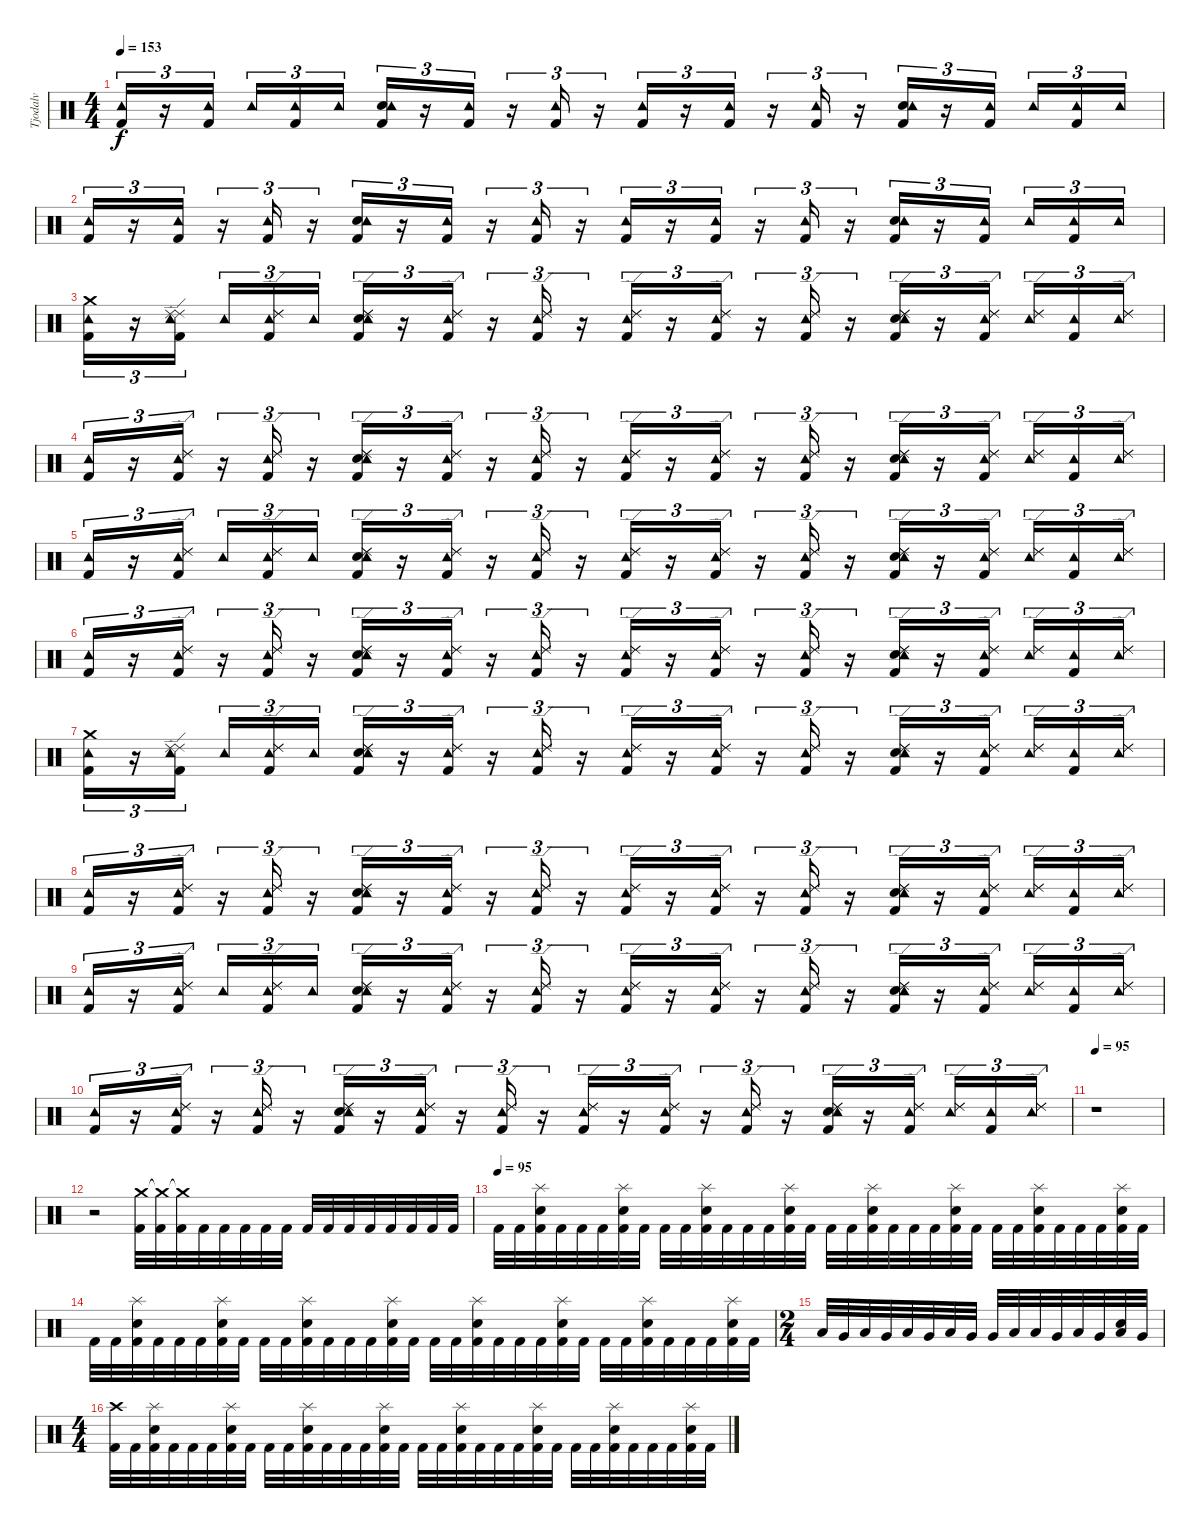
\track ("Tjodalv" "Tjodalv") {instrument percussion}
\staff {score}
\articulation defaults
\ts (4 4)
\tempo 153
\clef neutral
\ks c
("Kick (hit) 2" "Tambourine (hit)").16{tu (3 2) dy f} r.16{tu (3 2)} ("Kick (hit) 2" "Tambourine (hit)").16{tu (3 2)} "Tambourine (hit)".16{tu (3 2)} ("Kick (hit) 2" "Tambourine (hit)").16{tu (3 2)} "Tambourine (hit)".16{tu (3 2)} ("Kick (hit) 2" "Snare (hit) 2" "Tambourine (hit)").16{tu (3 2)} r.16{tu (3 2)} ("Kick (hit) 2" "Tambourine (hit)").16{tu (3 2)} r.16{tu (3 2)} ("Kick (hit) 2" "Tambourine (hit)").16{tu (3 2)} r.16{tu (3 2)} ("Kick (hit) 2" "Tambourine (hit)").16{tu (3 2)} r.16{tu (3 2)} ("Kick (hit) 2" "Tambourine (hit)").16{tu (3 2)} r.16{tu (3 2)} ("Kick (hit) 2" "Tambourine (hit)").16{tu (3 2)} r.16{tu (3 2)} ("Kick (hit) 2" "Snare (hit) 2" "Tambourine (hit)").16{tu (3 2)} r.16{tu (3 2)} ("Kick (hit) 2" "Tambourine (hit)").16{tu (3 2)} "Tambourine (hit)".16{tu (3 2)} ("Kick (hit) 2" "Tambourine (hit)").16{tu (3 2)} "Tambourine (hit)".16{tu (3 2)} |
("Kick (hit) 2" "Tambourine (hit)").16{tu (3 2)} r.16{tu (3 2)} ("Kick (hit) 2" "Tambourine (hit)").16{tu (3 2)} r.16{tu (3 2)} ("Kick (hit) 2" "Tambourine (hit)").16{tu (3 2)} r.16{tu (3 2)} ("Kick (hit) 2" "Snare (hit) 2" "Tambourine (hit)").16{tu (3 2)} r.16{tu (3 2)} ("Kick (hit) 2" "Tambourine (hit)").16{tu (3 2)} r.16{tu (3 2)} ("Kick (hit) 2" "Tambourine (hit)").16{tu (3 2)} r.16{tu (3 2)} ("Kick (hit) 2" "Tambourine (hit)").16{tu (3 2)} r.16{tu (3 2)} ("Kick (hit) 2" "Tambourine (hit)").16{tu (3 2)} r.16{tu (3 2)} ("Kick (hit) 2" "Tambourine (hit)").16{tu (3 2)} r.16{tu (3 2)} ("Kick (hit) 2" "Snare (hit) 2" "Tambourine (hit)").16{tu (3 2)} r.16{tu (3 2)} ("Kick (hit) 2" "Tambourine (hit)").16{tu (3 2)} "Tambourine (hit)".16{tu (3 2)} ("Kick (hit) 2" "Tambourine (hit)").16{tu (3 2)} "Tambourine (hit)".16{tu (3 2)} |
("Kick (hit) 2" "Crash medium (hit)" "Tambourine (hit)").16{tu (3 2) volume 12} r.16{tu (3 2)} ("Kick (hit) 2" "Ride (edge) 2" "Ride (edge) 2" "Tambourine (hit)").16{tu (3 2)} "Tambourine (hit)".16{tu (3 2)} ("Kick (hit) 2" "Ride (edge) 2" "Ride (edge) 2" "Tambourine (hit)").16{tu (3 2)} "Tambourine (hit)".16{tu (3 2)} ("Kick (hit) 2" "Ride (edge) 2" "Ride (edge) 2" "Snare (hit) 2" "Tambourine (hit)").16{tu (3 2)} r.16{tu (3 2)} ("Kick (hit) 2" "Ride (edge) 2" "Ride (edge) 2" "Tambourine (hit)").16{tu (3 2)} r.16{tu (3 2)} ("Kick (hit) 2" "Ride (edge) 2" "Ride (edge) 2" "Tambourine (hit)").16{tu (3 2)} r.16{tu (3 2)} ("Kick (hit) 2" "Ride (edge) 2" "Ride (edge) 2" "Tambourine (hit)").16{tu (3 2)} r.16{tu (3 2)} ("Kick (hit) 2" "Ride (edge) 2" "Ride (edge) 2" "Tambourine (hit)").16{tu (3 2)} r.16{tu (3 2)} ("Kick (hit) 2" "Ride (edge) 2" "Ride (edge) 2" "Tambourine (hit)").16{tu (3 2)} r.16{tu (3 2)} ("Kick (hit) 2" "Ride (edge) 2" "Ride (edge) 2" "Snare (hit) 2" "Tambourine (hit)").16{tu (3 2)} r.16{tu (3 2)} ("Kick (hit) 2" "Ride (edge) 2" "Ride (edge) 2" "Tambourine (hit)").16{tu (3 2)} ("Ride (edge) 2" "Ride (edge) 2" "Tambourine (hit)").16{tu (3 2)} ("Kick (hit) 2" "Tambourine (hit)").16{tu (3 2)} ("Ride (edge) 2" "Ride (edge) 2" "Tambourine (hit)").16{tu (3 2)} |
("Kick (hit) 2" "Tambourine (hit)").16{tu (3 2)} r.16{tu (3 2)} ("Kick (hit) 2" "Ride (edge) 2" "Ride (edge) 2" "Tambourine (hit)").16{tu (3 2)} r.16{tu (3 2)} ("Kick (hit) 2" "Ride (edge) 2" "Ride (edge) 2" "Tambourine (hit)").16{tu (3 2)} r.16{tu (3 2)} ("Kick (hit) 2" "Ride (edge) 2" "Ride (edge) 2" "Snare (hit) 2" "Tambourine (hit)").16{tu (3 2)} r.16{tu (3 2)} ("Kick (hit) 2" "Ride (edge) 2" "Ride (edge) 2" "Tambourine (hit)").16{tu (3 2)} r.16{tu (3 2)} ("Kick (hit) 2" "Ride (edge) 2" "Ride (edge) 2" "Tambourine (hit)").16{tu (3 2)} r.16{tu (3 2)} ("Kick (hit) 2" "Ride (edge) 2" "Ride (edge) 2" "Tambourine (hit)").16{tu (3 2)} r.16{tu (3 2)} ("Kick (hit) 2" "Ride (edge) 2" "Ride (edge) 2" "Tambourine (hit)").16{tu (3 2)} r.16{tu (3 2)} ("Kick (hit) 2" "Ride (edge) 2" "Ride (edge) 2" "Tambourine (hit)").16{tu (3 2)} r.16{tu (3 2)} ("Kick (hit) 2" "Ride (edge) 2" "Ride (edge) 2" "Snare (hit) 2" "Tambourine (hit)").16{tu (3 2)} r.16{tu (3 2)} ("Kick (hit) 2" "Ride (edge) 2" "Ride (edge) 2" "Tambourine (hit)").16{tu (3 2)} ("Ride (edge) 2" "Ride (edge) 2" "Tambourine (hit)").16{tu (3 2)} ("Kick (hit) 2" "Tambourine (hit)").16{tu (3 2)} ("Ride (edge) 2" "Ride (edge) 2" "Tambourine (hit)").16{tu (3 2)} |
("Kick (hit) 2" "Tambourine (hit)").16{tu (3 2)} r.16{tu (3 2)} ("Kick (hit) 2" "Ride (edge) 2" "Ride (edge) 2" "Tambourine (hit)").16{tu (3 2)} "Tambourine (hit)".16{tu (3 2)} ("Kick (hit) 2" "Ride (edge) 2" "Ride (edge) 2" "Tambourine (hit)").16{tu (3 2)} "Tambourine (hit)".16{tu (3 2)} ("Kick (hit) 2" "Ride (edge) 2" "Ride (edge) 2" "Snare (hit) 2" "Tambourine (hit)").16{tu (3 2)} r.16{tu (3 2)} ("Kick (hit) 2" "Ride (edge) 2" "Ride (edge) 2" "Tambourine (hit)").16{tu (3 2)} r.16{tu (3 2)} ("Kick (hit) 2" "Ride (edge) 2" "Ride (edge) 2" "Tambourine (hit)").16{tu (3 2)} r.16{tu (3 2)} ("Kick (hit) 2" "Ride (edge) 2" "Ride (edge) 2" "Tambourine (hit)").16{tu (3 2)} r.16{tu (3 2)} ("Kick (hit) 2" "Ride (edge) 2" "Ride (edge) 2" "Tambourine (hit)").16{tu (3 2)} r.16{tu (3 2)} ("Kick (hit) 2" "Ride (edge) 2" "Ride (edge) 2" "Tambourine (hit)").16{tu (3 2)} r.16{tu (3 2)} ("Kick (hit) 2" "Ride (edge) 2" "Ride (edge) 2" "Snare (hit) 2" "Tambourine (hit)").16{tu (3 2)} r.16{tu (3 2)} ("Kick (hit) 2" "Ride (edge) 2" "Ride (edge) 2" "Tambourine (hit)").16{tu (3 2)} ("Ride (edge) 2" "Ride (edge) 2" "Tambourine (hit)").16{tu (3 2)} ("Kick (hit) 2" "Tambourine (hit)").16{tu (3 2)} ("Ride (edge) 2" "Ride (edge) 2" "Tambourine (hit)").16{tu (3 2)} |
("Kick (hit) 2" "Tambourine (hit)").16{tu (3 2)} r.16{tu (3 2)} ("Kick (hit) 2" "Ride (edge) 2" "Ride (edge) 2" "Tambourine (hit)").16{tu (3 2)} r.16{tu (3 2)} ("Kick (hit) 2" "Ride (edge) 2" "Ride (edge) 2" "Tambourine (hit)").16{tu (3 2)} r.16{tu (3 2)} ("Kick (hit) 2" "Ride (edge) 2" "Ride (edge) 2" "Snare (hit) 2" "Tambourine (hit)").16{tu (3 2)} r.16{tu (3 2)} ("Kick (hit) 2" "Ride (edge) 2" "Ride (edge) 2" "Tambourine (hit)").16{tu (3 2)} r.16{tu (3 2)} ("Kick (hit) 2" "Ride (edge) 2" "Ride (edge) 2" "Tambourine (hit)").16{tu (3 2)} r.16{tu (3 2)} ("Kick (hit) 2" "Ride (edge) 2" "Ride (edge) 2" "Tambourine (hit)").16{tu (3 2)} r.16{tu (3 2)} ("Kick (hit) 2" "Ride (edge) 2" "Ride (edge) 2" "Tambourine (hit)").16{tu (3 2)} r.16{tu (3 2)} ("Kick (hit) 2" "Ride (edge) 2" "Ride (edge) 2" "Tambourine (hit)").16{tu (3 2)} r.16{tu (3 2)} ("Kick (hit) 2" "Ride (edge) 2" "Ride (edge) 2" "Snare (hit) 2" "Tambourine (hit)").16{tu (3 2)} r.16{tu (3 2)} ("Kick (hit) 2" "Ride (edge) 2" "Ride (edge) 2" "Tambourine (hit)").16{tu (3 2)} ("Ride (edge) 2" "Ride (edge) 2" "Tambourine (hit)").16{tu (3 2)} ("Kick (hit) 2" "Tambourine (hit)").16{tu (3 2)} ("Ride (edge) 2" "Ride (edge) 2" "Tambourine (hit)").16{tu (3 2)} |
("Kick (hit) 2" "Crash medium (hit)" "Tambourine (hit)").16{tu (3 2)} r.16{tu (3 2)} ("Kick (hit) 2" "Ride (edge) 2" "Ride (edge) 2" "Tambourine (hit)").16{tu (3 2)} "Tambourine (hit)".16{tu (3 2)} ("Kick (hit) 2" "Ride (edge) 2" "Ride (edge) 2" "Tambourine (hit)").16{tu (3 2)} "Tambourine (hit)".16{tu (3 2)} ("Kick (hit) 2" "Ride (edge) 2" "Ride (edge) 2" "Snare (hit) 2" "Tambourine (hit)").16{tu (3 2)} r.16{tu (3 2)} ("Kick (hit) 2" "Ride (edge) 2" "Ride (edge) 2" "Tambourine (hit)").16{tu (3 2)} r.16{tu (3 2)} ("Kick (hit) 2" "Ride (edge) 2" "Ride (edge) 2" "Tambourine (hit)").16{tu (3 2)} r.16{tu (3 2)} ("Kick (hit) 2" "Ride (edge) 2" "Ride (edge) 2" "Tambourine (hit)").16{tu (3 2)} r.16{tu (3 2)} ("Kick (hit) 2" "Ride (edge) 2" "Ride (edge) 2" "Tambourine (hit)").16{tu (3 2)} r.16{tu (3 2)} ("Kick (hit) 2" "Ride (edge) 2" "Ride (edge) 2" "Tambourine (hit)").16{tu (3 2)} r.16{tu (3 2)} ("Kick (hit) 2" "Ride (edge) 2" "Ride (edge) 2" "Snare (hit) 2" "Tambourine (hit)").16{tu (3 2)} r.16{tu (3 2)} ("Kick (hit) 2" "Ride (edge) 2" "Ride (edge) 2" "Tambourine (hit)").16{tu (3 2)} ("Ride (edge) 2" "Ride (edge) 2" "Tambourine (hit)").16{tu (3 2)} ("Kick (hit) 2" "Tambourine (hit)").16{tu (3 2)} ("Ride (edge) 2" "Ride (edge) 2" "Tambourine (hit)").16{tu (3 2)} |
("Kick (hit) 2" "Tambourine (hit)").16{tu (3 2)} r.16{tu (3 2)} ("Kick (hit) 2" "Ride (edge) 2" "Ride (edge) 2" "Tambourine (hit)").16{tu (3 2)} r.16{tu (3 2)} ("Kick (hit) 2" "Ride (edge) 2" "Ride (edge) 2" "Tambourine (hit)").16{tu (3 2)} r.16{tu (3 2)} ("Kick (hit) 2" "Ride (edge) 2" "Ride (edge) 2" "Snare (hit) 2" "Tambourine (hit)").16{tu (3 2)} r.16{tu (3 2)} ("Kick (hit) 2" "Ride (edge) 2" "Ride (edge) 2" "Tambourine (hit)").16{tu (3 2)} r.16{tu (3 2)} ("Kick (hit) 2" "Ride (edge) 2" "Ride (edge) 2" "Tambourine (hit)").16{tu (3 2)} r.16{tu (3 2)} ("Kick (hit) 2" "Ride (edge) 2" "Ride (edge) 2" "Tambourine (hit)").16{tu (3 2)} r.16{tu (3 2)} ("Kick (hit) 2" "Ride (edge) 2" "Ride (edge) 2" "Tambourine (hit)").16{tu (3 2)} r.16{tu (3 2)} ("Kick (hit) 2" "Ride (edge) 2" "Ride (edge) 2" "Tambourine (hit)").16{tu (3 2)} r.16{tu (3 2)} ("Kick (hit) 2" "Ride (edge) 2" "Ride (edge) 2" "Snare (hit) 2" "Tambourine (hit)").16{tu (3 2)} r.16{tu (3 2)} ("Kick (hit) 2" "Ride (edge) 2" "Ride (edge) 2" "Tambourine (hit)").16{tu (3 2)} ("Ride (edge) 2" "Ride (edge) 2" "Tambourine (hit)").16{tu (3 2)} ("Kick (hit) 2" "Tambourine (hit)").16{tu (3 2)} ("Ride (edge) 2" "Ride (edge) 2" "Tambourine (hit)").16{tu (3 2)} |
("Kick (hit) 2" "Tambourine (hit)").16{tu (3 2)} r.16{tu (3 2)} ("Kick (hit) 2" "Ride (edge) 2" "Ride (edge) 2" "Tambourine (hit)").16{tu (3 2)} "Tambourine (hit)".16{tu (3 2)} ("Kick (hit) 2" "Ride (edge) 2" "Ride (edge) 2" "Tambourine (hit)").16{tu (3 2)} "Tambourine (hit)".16{tu (3 2)} ("Kick (hit) 2" "Ride (edge) 2" "Ride (edge) 2" "Snare (hit) 2" "Tambourine (hit)").16{tu (3 2)} r.16{tu (3 2)} ("Kick (hit) 2" "Ride (edge) 2" "Ride (edge) 2" "Tambourine (hit)").16{tu (3 2)} r.16{tu (3 2)} ("Kick (hit) 2" "Ride (edge) 2" "Ride (edge) 2" "Tambourine (hit)").16{tu (3 2)} r.16{tu (3 2)} ("Kick (hit) 2" "Ride (edge) 2" "Ride (edge) 2" "Tambourine (hit)").16{tu (3 2)} r.16{tu (3 2)} ("Kick (hit) 2" "Ride (edge) 2" "Ride (edge) 2" "Tambourine (hit)").16{tu (3 2)} r.16{tu (3 2)} ("Kick (hit) 2" "Ride (edge) 2" "Ride (edge) 2" "Tambourine (hit)").16{tu (3 2)} r.16{tu (3 2)} ("Kick (hit) 2" "Ride (edge) 2" "Ride (edge) 2" "Snare (hit) 2" "Tambourine (hit)").16{tu (3 2)} r.16{tu (3 2)} ("Kick (hit) 2" "Ride (edge) 2" "Ride (edge) 2" "Tambourine (hit)").16{tu (3 2)} ("Ride (edge) 2" "Ride (edge) 2" "Tambourine (hit)").16{tu (3 2)} ("Kick (hit) 2" "Tambourine (hit)").16{tu (3 2)} ("Ride (edge) 2" "Ride (edge) 2" "Tambourine (hit)").16{tu (3 2)} |
("Kick (hit) 2" "Tambourine (hit)").16{tu (3 2)} r.16{tu (3 2)} ("Kick (hit) 2" "Ride (edge) 2" "Ride (edge) 2" "Tambourine (hit)").16{tu (3 2)} r.16{tu (3 2)} ("Kick (hit) 2" "Ride (edge) 2" "Ride (edge) 2" "Tambourine (hit)").16{tu (3 2)} r.16{tu (3 2)} ("Kick (hit) 2" "Ride (edge) 2" "Ride (edge) 2" "Snare (hit) 2" "Tambourine (hit)").16{tu (3 2)} r.16{tu (3 2)} ("Kick (hit) 2" "Ride (edge) 2" "Ride (edge) 2" "Tambourine (hit)").16{tu (3 2)} r.16{tu (3 2)} ("Kick (hit) 2" "Ride (edge) 2" "Ride (edge) 2" "Tambourine (hit)").16{tu (3 2)} r.16{tu (3 2)} ("Kick (hit) 2" "Ride (edge) 2" "Ride (edge) 2" "Tambourine (hit)").16{tu (3 2)} r.16{tu (3 2)} ("Kick (hit) 2" "Ride (edge) 2" "Ride (edge) 2" "Tambourine (hit)").16{tu (3 2)} r.16{tu (3 2)} ("Kick (hit) 2" "Ride (edge) 2" "Ride (edge) 2" "Tambourine (hit)").16{tu (3 2)} r.16{tu (3 2)} ("Kick (hit) 2" "Ride (edge) 2" "Ride (edge) 2" "Snare (hit) 2" "Tambourine (hit)").16{tu (3 2)} r.16{tu (3 2)} ("Kick (hit) 2" "Ride (edge) 2" "Ride (edge) 2" "Tambourine (hit)").16{tu (3 2)} ("Ride (edge) 2" "Ride (edge) 2" "Tambourine (hit)").16{tu (3 2)} ("Kick (hit) 2" "Tambourine (hit)").16{tu (3 2)} ("Ride (edge) 2" "Ride (edge) 2" "Tambourine (hit)").16{tu (3 2)} |
\tempo 91
\tempo 95
r.1 |
r.2 ("Kick (hit) 2" "Crash medium (hit)").32 ("Kick (hit) 2" "Crash medium (hit)"{t}).32 ("Kick (hit) 2" "Crash medium (hit)"{t}).32 "Kick (hit) 2".32 "Kick (hit) 2".32 "Kick (hit) 2".32 "Kick (hit) 2".32 "Kick (hit) 2".32 "Kick (hit) 2".32 "Kick (hit) 2".32 "Kick (hit) 2".32 "Kick (hit) 2".32 "Kick (hit) 2".32 "Kick (hit) 2".32 "Kick (hit) 2".32 "Kick (hit) 2".32 |
\tempo (95)
"Kick (hit) 2".32 "Kick (hit) 2".32 ("Kick (hit) 2" "Snare (hit) 2" "Splash (hit)").32 "Kick (hit) 2".32 "Kick (hit) 2".32 "Kick (hit) 2".32 ("Kick (hit) 2" "Snare (hit) 2" "Splash (hit)").32 "Kick (hit) 2".32 "Kick (hit) 2".32 "Kick (hit) 2".32 ("Kick (hit) 2" "Snare (hit) 2" "Splash (hit)").32 "Kick (hit) 2".32 "Kick (hit) 2".32 "Kick (hit) 2".32 ("Kick (hit) 2" "Snare (hit) 2" "Splash (hit)").32 "Kick (hit) 2".32 "Kick (hit) 2".32 "Kick (hit) 2".32 ("Kick (hit) 2" "Snare (hit) 2" "Splash (hit)").32 "Kick (hit) 2".32 "Kick (hit) 2".32 "Kick (hit) 2".32 ("Kick (hit) 2" "Snare (hit) 2" "Splash (hit)").32 "Kick (hit) 2".32 "Kick (hit) 2".32 "Kick (hit) 2".32 ("Kick (hit) 2" "Snare (hit) 2" "Splash (hit)").32 "Kick (hit) 2".32 "Kick (hit) 2".32 "Kick (hit) 2".32 ("Kick (hit) 2" "Snare (hit) 2" "Splash (hit)").32 "Kick (hit) 2".32 |
"Kick (hit) 2".32 "Kick (hit) 2".32 ("Kick (hit) 2" "Snare (hit) 2" "Splash (hit)").32 "Kick (hit) 2".32 "Kick (hit) 2".32 "Kick (hit) 2".32 ("Kick (hit) 2" "Snare (hit) 2" "Splash (hit)").32 "Kick (hit) 2".32 "Kick (hit) 2".32 "Kick (hit) 2".32 ("Kick (hit) 2" "Snare (hit) 2" "Splash (hit)").32 "Kick (hit) 2".32 "Kick (hit) 2".32 "Kick (hit) 2".32 ("Kick (hit) 2" "Snare (hit) 2" "Splash (hit)").32 "Kick (hit) 2".32 "Kick (hit) 2".32 "Kick (hit) 2".32 ("Kick (hit) 2" "Snare (hit) 2" "Splash (hit)").32 "Kick (hit) 2".32 "Kick (hit) 2".32 "Kick (hit) 2".32 ("Kick (hit) 2" "Snare (hit) 2" "Splash (hit)").32 "Kick (hit) 2".32 "Kick (hit) 2".32 "Kick (hit) 2".32 ("Kick (hit) 2" "Snare (hit) 2" "Splash (hit)").32 "Kick (hit) 2".32 "Kick (hit) 2".32 "Kick (hit) 2".32 ("Kick (hit) 2" "Snare (hit) 2" "Splash (hit)").32 "Kick (hit) 2".32 |
\ts (2 4)
"Low Tom (hit)".32 "Very Low Tom (hit)".32 "Low Floor Tom (hit)".32 "Very Low Tom (hit)".32 "Low Tom (hit)".32 "Very Low Tom (hit)".32 "Low Floor Tom (hit)".32 "Very Low Tom (hit)".32 "Very Low Tom (hit)".32 "Low Tom (hit)".32 "Low Floor Tom (hit)".32 "Very Low Tom (hit)".32 "Low Floor Tom (hit)".32 "Very Low Tom (hit)".32 ("Low Tom (hit)" "Snare (hit) 2").32 "Very Low Tom (hit)".32 |
\ts (4 4)
("Kick (hit) 2" "Crash high (hit)").32 "Kick (hit) 2".32 ("Kick (hit) 2" "Snare (hit) 2" "Splash (hit)").32 "Kick (hit) 2".32 "Kick (hit) 2".32 "Kick (hit) 2".32 ("Kick (hit) 2" "Snare (hit) 2" "Splash (hit)").32 "Kick (hit) 2".32 "Kick (hit) 2".32 "Kick (hit) 2".32 ("Kick (hit) 2" "Snare (hit) 2" "Splash (hit)").32 "Kick (hit) 2".32 "Kick (hit) 2".32 "Kick (hit) 2".32 ("Kick (hit) 2" "Snare (hit) 2" "Splash (hit)").32 "Kick (hit) 2".32 "Kick (hit) 2".32 "Kick (hit) 2".32 ("Kick (hit) 2" "Snare (hit) 2" "Splash (hit)").32 "Kick (hit) 2".32 "Kick (hit) 2".32 "Kick (hit) 2".32 ("Kick (hit) 2" "Snare (hit) 2" "Splash (hit)").32 "Kick (hit) 2".32 "Kick (hit) 2".32 "Kick (hit) 2".32 ("Kick (hit) 2" "Snare (hit) 2" "Splash (hit)").32 "Kick (hit) 2".32 "Kick (hit) 2".32 "Kick (hit) 2".32 ("Kick (hit) 2" "Snare (hit) 2" "Splash (hit)").32 "Kick (hit) 2".32
